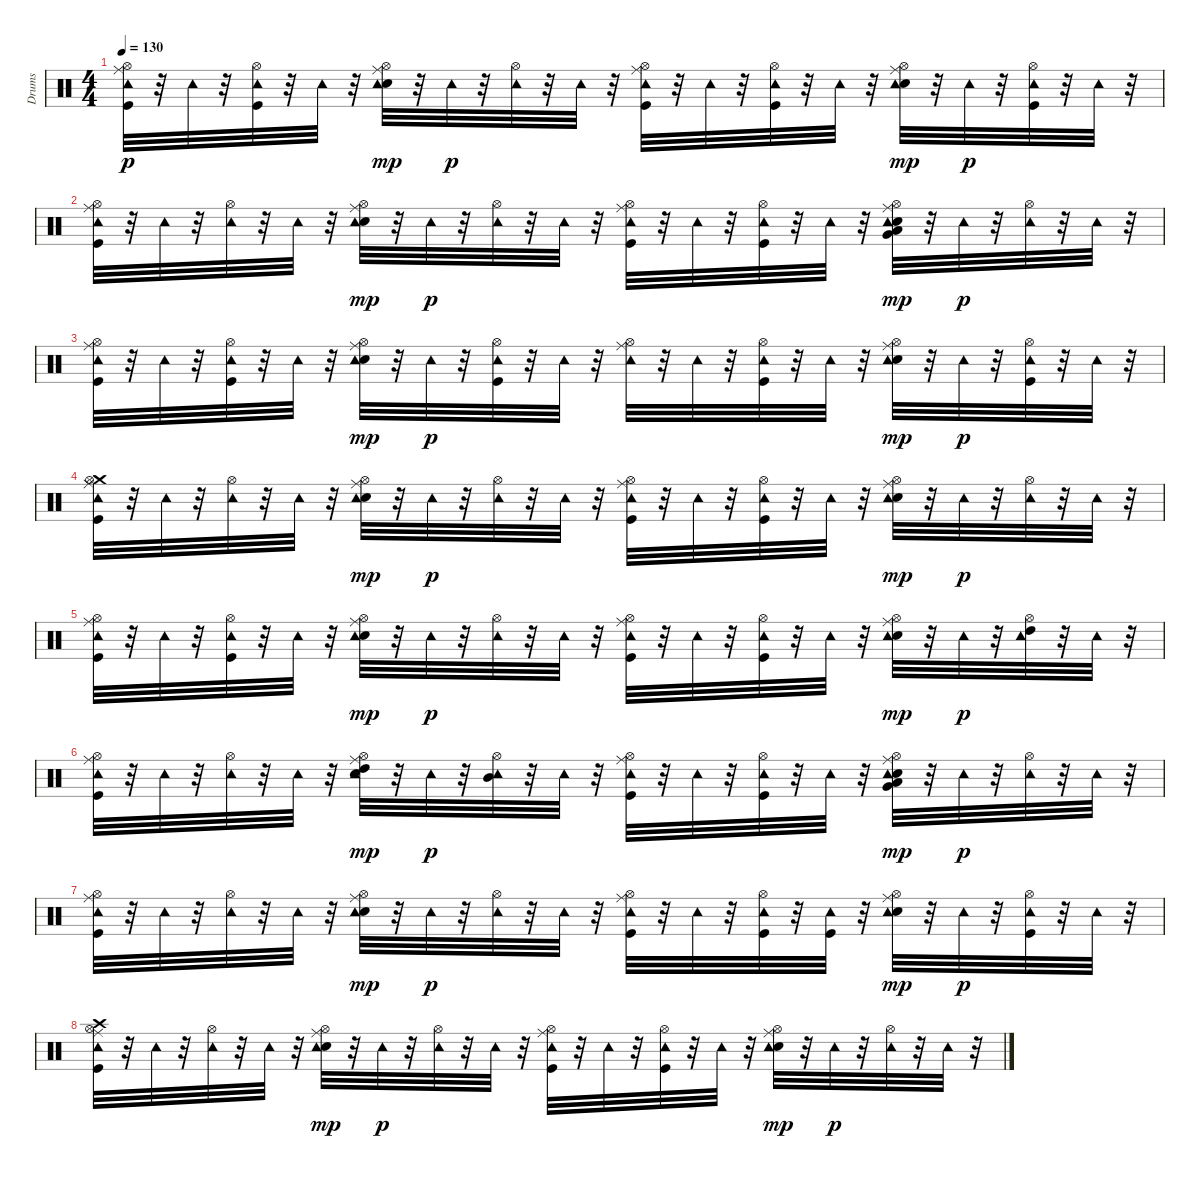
\track ("Drums" "Drums") {instrument percussion}
\staff {score}
\articulation defaults
\ts (4 4)
\tempo 130
\clef neutral
\ks c
("Ride (middle)" "Kick (hit)" "Hi-Hat (open)" "Tambourine (hit)").32{dy p} r.32 "Tambourine (hit)".32 r.32 ("Hi-Hat (open)" "Kick (hit)" "Tambourine (hit)").32 r.32 "Tambourine (hit)".32 r.32 ("Ride (middle)" "Electric Snare (hit)" "Hi-Hat (open)" "Tambourine (hit)").32{dy mp} r.32 "Tambourine (hit)".32{dy p} r.32 ("Hi-Hat (open)" "Tambourine (hit)").32 r.32 "Tambourine (hit)".32 r.32 ("Ride (middle)" "Kick (hit)" "Hi-Hat (open)" "Tambourine (hit)").32 r.32 "Tambourine (hit)".32 r.32 ("Hi-Hat (open)" "Kick (hit)" "Tambourine (hit)").32 r.32 "Tambourine (hit)".32 r.32 ("Ride (middle)" "Electric Snare (hit)" "Hi-Hat (open)" "Tambourine (hit)").32{dy mp} r.32 "Tambourine (hit)".32{dy p} r.32 ("Hi-Hat (open)" "Kick (hit)" "Tambourine (hit)").32 r.32 "Tambourine (hit)".32 r.32 |
("Ride (middle)" "Kick (hit)" "Hi-Hat (open)" "Tambourine (hit)").32 r.32 "Tambourine (hit)".32 r.32 ("Hi-Hat (open)" "Tambourine (hit)").32 r.32 "Tambourine (hit)".32 r.32 ("Ride (middle)" "Electric Snare (hit)" "Hi-Hat (open)" "Tambourine (hit)").32{dy mp} r.32 "Tambourine (hit)".32{dy p} r.32 ("Hi-Hat (open)" "Tambourine (hit)").32 r.32 "Tambourine (hit)".32 r.32 ("Ride (middle)" "Kick (hit)" "Hi-Hat (open)" "Tambourine (hit)").32 r.32 "Tambourine (hit)".32 r.32 ("Kick (hit)" "Hi-Hat (open)" "Tambourine (hit)").32 r.32 "Tambourine (hit)".32 r.32 ("Very Low Tom (hit)" "Low Tom (hit)" "Ride (middle)" "Electric Snare (hit)" "Hi-Hat (open)" "Tambourine (hit)").32{dy mp} r.32 "Tambourine (hit)".32{dy p} r.32 ("Hi-Hat (open)" "Tambourine (hit)").32 r.32 "Tambourine (hit)".32 r.32 |
("Ride (middle)" "Kick (hit)" "Hi-Hat (open)" "Tambourine (hit)").32 r.32 "Tambourine (hit)".32 r.32 ("Hi-Hat (open)" "Kick (hit)" "Tambourine (hit)").32 r.32 "Tambourine (hit)".32 r.32 ("Ride (middle)" "Electric Snare (hit)" "Hi-Hat (open)" "Tambourine (hit)").32{dy mp} r.32 "Tambourine (hit)".32{dy p} r.32 ("Kick (hit)" "Hi-Hat (open)" "Tambourine (hit)").32 r.32 "Tambourine (hit)".32 r.32 ("Ride (middle)" "Hi-Hat (open)" "Tambourine (hit)").32 r.32 "Tambourine (hit)".32 r.32 ("Hi-Hat (open)" "Kick (hit)" "Tambourine (hit)").32 r.32 "Tambourine (hit)".32 r.32 ("Ride (middle)" "Electric Snare (hit)" "Hi-Hat (open)" "Tambourine (hit)").32{dy mp} r.32 "Tambourine (hit)".32{dy p} r.32 ("Hi-Hat (open)" "Kick (hit)" "Tambourine (hit)").32 r.32 "Tambourine (hit)".32 r.32 |
("Ride (middle)" "Crash medium (hit)" "Kick (hit)" "Hi-Hat (open)" "Tambourine (hit)").32 r.32 "Tambourine (hit)".32 r.32 ("Hi-Hat (open)" "Tambourine (hit)").32 r.32 "Tambourine (hit)".32 r.32 ("Ride (middle)" "Electric Snare (hit)" "Hi-Hat (open)" "Tambourine (hit)").32{dy mp} r.32 "Tambourine (hit)".32{dy p} r.32 ("Hi-Hat (open)" "Tambourine (hit)").32 r.32 "Tambourine (hit)".32 r.32 ("Ride (middle)" "Kick (hit)" "Hi-Hat (open)" "Tambourine (hit)").32 r.32 "Tambourine (hit)".32 r.32 ("Kick (hit)" "Hi-Hat (open)" "Tambourine (hit)").32 r.32 "Tambourine (hit)".32 r.32 ("Ride (middle)" "Electric Snare (hit)" "Hi-Hat (open)" "Tambourine (hit)").32{dy mp} r.32 "Tambourine (hit)".32{dy p} r.32 ("Hi-Hat (open)" "Tambourine (hit)").32 r.32 "Tambourine (hit)".32 r.32 |
("Ride (middle)" "Kick (hit)" "Hi-Hat (open)" "Tambourine (hit)").32 r.32 "Tambourine (hit)".32 r.32 ("Hi-Hat (open)" "Kick (hit)" "Tambourine (hit)").32 r.32 "Tambourine (hit)".32 r.32 ("Ride (middle)" "Electric Snare (hit)" "Hi-Hat (open)" "Tambourine (hit)").32{dy mp} r.32 "Tambourine (hit)".32{dy p} r.32 ("Hi-Hat (open)" "Tambourine (hit)").32 r.32 "Tambourine (hit)".32 r.32 ("Ride (middle)" "Kick (hit)" "Hi-Hat (open)" "Tambourine (hit)").32 r.32 "Tambourine (hit)".32 r.32 ("Hi-Hat (open)" "Kick (hit)" "Tambourine (hit)").32 r.32 "Tambourine (hit)".32 r.32 ("Ride (middle)" "Electric Snare (hit)" "Hi-Hat (open)" "Tambourine (hit)").32{dy mp} r.32 "Tambourine (hit)".32{dy p} r.32 ("High Tom (hit)" "Hi-Hat (open)" "Tambourine (hit)").32 r.32 "Tambourine (hit)".32 r.32 |
("Ride (middle)" "Kick (hit)" "Hi-Hat (open)" "Tambourine (hit)").32 r.32 "Tambourine (hit)".32 r.32 ("Hi-Hat (open)" "Tambourine (hit)").32 r.32 "Tambourine (hit)".32 r.32 ("High Tom (hit)" "Ride (middle)" "Electric Snare (hit)" "Hi-Hat (open)" "Tambourine (hit)").32{dy mp} r.32 "Tambourine (hit)".32{dy p} r.32 ("Mid Tom (hit)" "Hi-Hat (open)" "Tambourine (hit)").32 r.32 "Tambourine (hit)".32 r.32 ("Ride (middle)" "Kick (hit)" "Hi-Hat (open)" "Tambourine (hit)").32 r.32 "Tambourine (hit)".32 r.32 ("Kick (hit)" "Hi-Hat (open)" "Tambourine (hit)").32 r.32 "Tambourine (hit)".32 r.32 ("Very Low Tom (hit)" "Low Tom (hit)" "Ride (middle)" "Electric Snare (hit)" "Hi-Hat (open)" "Tambourine (hit)").32{dy mp} r.32 "Tambourine (hit)".32{dy p} r.32 ("Hi-Hat (open)" "Tambourine (hit)").32 r.32 "Tambourine (hit)".32 r.32 |
("Ride (middle)" "Kick (hit)" "Hi-Hat (open)" "Tambourine (hit)").32 r.32 "Tambourine (hit)".32 r.32 ("Hi-Hat (open)" "Tambourine (hit)").32 r.32 "Tambourine (hit)".32 r.32 ("Ride (middle)" "Electric Snare (hit)" "Hi-Hat (open)" "Tambourine (hit)").32{dy mp} r.32 "Tambourine (hit)".32{dy p} r.32 ("Hi-Hat (open)" "Tambourine (hit)").32 r.32 "Tambourine (hit)".32 r.32 ("Kick (hit)" "Ride (middle)" "Hi-Hat (open)" "Tambourine (hit)").32 r.32 "Tambourine (hit)".32 r.32 ("Hi-Hat (open)" "Kick (hit)" "Tambourine (hit)").32 r.32 ("Kick (hit)" "Tambourine (hit)").32 r.32 ("Ride (middle)" "Electric Snare (hit)" "Hi-Hat (open)" "Tambourine (hit)").32{dy mp} r.32 "Tambourine (hit)".32{dy p} r.32 ("Hi-Hat (open)" "Kick (hit)" "Tambourine (hit)").32 r.32 "Tambourine (hit)".32 r.32 |
("Crash high (hit)" "Ride (middle)" "Kick (hit)" "Hi-Hat (open)" "Tambourine (hit)").32 r.32 "Tambourine (hit)".32 r.32 ("Hi-Hat (open)" "Tambourine (hit)").32 r.32 "Tambourine (hit)".32 r.32 ("Ride (middle)" "Electric Snare (hit)" "Hi-Hat (open)" "Tambourine (hit)").32{dy mp} r.32 "Tambourine (hit)".32{dy p} r.32 ("Hi-Hat (open)" "Tambourine (hit)").32 r.32 "Tambourine (hit)".32 r.32 ("Ride (middle)" "Kick (hit)" "Hi-Hat (open)" "Tambourine (hit)").32 r.32 "Tambourine (hit)".32 r.32 ("Kick (hit)" "Hi-Hat (open)" "Tambourine (hit)").32 r.32 "Tambourine (hit)".32 r.32 ("Ride (middle)" "Electric Snare (hit)" "Hi-Hat (open)" "Tambourine (hit)").32{dy mp} r.32 "Tambourine (hit)".32{dy p} r.32 ("Hi-Hat (open)" "Tambourine (hit)").32 r.32 "Tambourine (hit)".32 r.32
